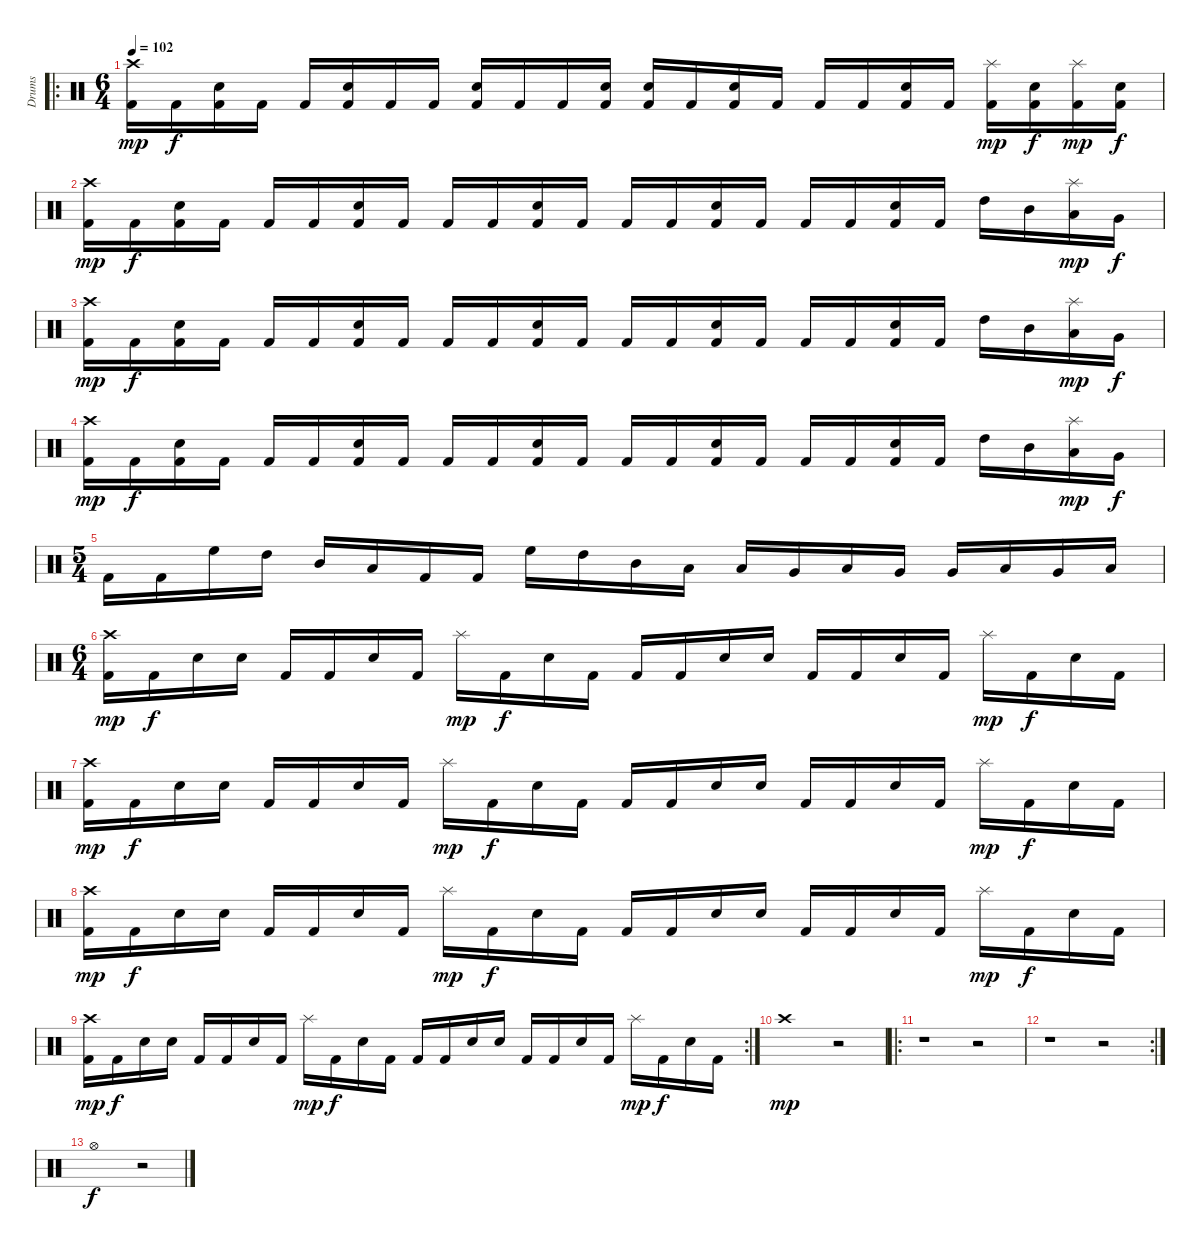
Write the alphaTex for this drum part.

\track ("Drums" "Drums") {instrument percussion}
\staff {score}
\articulation defaults
\ro
\ts (6 4)
\tempo 102
\clef neutral
\ks c
("Kick (hit) 2" "Crash high (hit)").16{dy mp} "Kick (hit) 2".16{dy f} ("Kick (hit) 2" "Electric Snare (hit)").16 "Kick (hit) 2".16 "Kick (hit) 2".16 ("Kick (hit) 2" "Electric Snare (hit)").16 "Kick (hit) 2".16 "Kick (hit) 2".16 ("Kick (hit) 2" "Electric Snare (hit)").16 "Kick (hit) 2".16 "Kick (hit) 2".16 ("Kick (hit) 2" "Electric Snare (hit)").16 ("Kick (hit) 2" "Electric Snare (hit)").16 "Kick (hit) 2".16 ("Kick (hit) 2" "Electric Snare (hit)").16 "Kick (hit) 2".16 "Kick (hit) 2".16 "Kick (hit) 2".16 ("Kick (hit) 2" "Electric Snare (hit)").16 "Kick (hit) 2".16 ("Kick (hit) 2" "Splash (hit)").16{dy mp} ("Kick (hit) 2" "Electric Snare (hit)").16{dy f} ("Kick (hit) 2" "Splash (hit)").16{dy mp} ("Kick (hit) 2" "Electric Snare (hit)").16{dy f} |
("Kick (hit) 2" "Crash high (hit)").16{dy mp} "Kick (hit) 2".16{dy f} ("Kick (hit) 2" "Electric Snare (hit)").16 "Kick (hit) 2".16 "Kick (hit) 2".16 "Kick (hit) 2".16 ("Kick (hit) 2" "Electric Snare (hit)").16 "Kick (hit) 2".16 "Kick (hit) 2".16 "Kick (hit) 2".16 ("Kick (hit) 2" "Electric Snare (hit)").16 "Kick (hit) 2".16 "Kick (hit) 2".16 "Kick (hit) 2".16 ("Kick (hit) 2" "Electric Snare (hit)").16 "Kick (hit) 2".16 "Kick (hit) 2".16 "Kick (hit) 2".16 ("Kick (hit) 2" "Electric Snare (hit)").16 "Kick (hit) 2".16 "High Tom (hit)".16 "Mid Tom (hit)".16 ("Low Tom (hit)" "Splash (hit)").16{dy mp} "Very Low Tom (hit)".16{dy f} |
("Kick (hit) 2" "Crash high (hit)").16{dy mp} "Kick (hit) 2".16{dy f} ("Kick (hit) 2" "Electric Snare (hit)").16 "Kick (hit) 2".16 "Kick (hit) 2".16 "Kick (hit) 2".16 ("Kick (hit) 2" "Electric Snare (hit)").16 "Kick (hit) 2".16 "Kick (hit) 2".16 "Kick (hit) 2".16 ("Kick (hit) 2" "Electric Snare (hit)").16 "Kick (hit) 2".16 "Kick (hit) 2".16 "Kick (hit) 2".16 ("Kick (hit) 2" "Electric Snare (hit)").16 "Kick (hit) 2".16 "Kick (hit) 2".16 "Kick (hit) 2".16 ("Kick (hit) 2" "Electric Snare (hit)").16 "Kick (hit) 2".16 "High Tom (hit)".16 "Mid Tom (hit)".16 ("Low Tom (hit)" "Splash (hit)").16{dy mp} "Very Low Tom (hit)".16{dy f} |
("Kick (hit) 2" "Crash high (hit)").16{dy mp} "Kick (hit) 2".16{dy f} ("Kick (hit) 2" "Electric Snare (hit)").16 "Kick (hit) 2".16 "Kick (hit) 2".16 "Kick (hit) 2".16 ("Kick (hit) 2" "Electric Snare (hit)").16 "Kick (hit) 2".16 "Kick (hit) 2".16 "Kick (hit) 2".16 ("Kick (hit) 2" "Electric Snare (hit)").16 "Kick (hit) 2".16 "Kick (hit) 2".16 "Kick (hit) 2".16 ("Kick (hit) 2" "Electric Snare (hit)").16 "Kick (hit) 2".16 "Kick (hit) 2".16 "Kick (hit) 2".16 ("Kick (hit) 2" "Electric Snare (hit)").16 "Kick (hit) 2".16 "High Tom (hit)".16 "Mid Tom (hit)".16 ("Low Tom (hit)" "Splash (hit)").16{dy mp} "Very Low Tom (hit)".16{dy f} |
\ts (5 4)
"Kick (hit) 2".16 "Kick (hit) 2".16 "High Floor Tom (hit)".16 "High Tom (hit)".16 "Mid Tom (hit)".16 "Low Tom (hit)".16 "Kick (hit) 2".16 "Kick (hit) 2".16 "High Floor Tom (hit)".16 "High Tom (hit)".16 "Mid Tom (hit)".16 "Low Tom (hit)".16 "Low Tom (hit)".16 "Very Low Tom (hit)".16 "Low Tom (hit)".16 "Very Low Tom (hit)".16 "Very Low Tom (hit)".16 "Low Floor Tom (hit)".16 "Very Low Tom (hit)".16 "Low Floor Tom (hit)".16 |
\ts (6 4)
("Kick (hit) 2" "Crash high (hit)").16{dy mp} "Kick (hit) 2".16{dy f} "Electric Snare (hit)".16 "Electric Snare (hit)".16 "Kick (hit) 2".16 "Kick (hit) 2".16 "Electric Snare (hit)".16 "Kick (hit) 2".16 "Splash (hit)".16{dy mp} "Kick (hit) 2".16{dy f} "Electric Snare (hit)".16 "Kick (hit) 2".16 "Kick (hit) 2".16 "Kick (hit) 2".16 "Electric Snare (hit)".16 "Electric Snare (hit)".16 "Kick (hit) 2".16 "Kick (hit) 2".16 "Electric Snare (hit)".16 "Kick (hit) 2".16 "Splash (hit)".16{dy mp} "Kick (hit) 2".16{dy f} "Electric Snare (hit)".16 "Kick (hit) 2".16 |
("Kick (hit) 2" "Crash high (hit)").16{dy mp} "Kick (hit) 2".16{dy f} "Electric Snare (hit)".16 "Electric Snare (hit)".16 "Kick (hit) 2".16 "Kick (hit) 2".16 "Electric Snare (hit)".16 "Kick (hit) 2".16 "Splash (hit)".16{dy mp} "Kick (hit) 2".16{dy f} "Electric Snare (hit)".16 "Kick (hit) 2".16 "Kick (hit) 2".16 "Kick (hit) 2".16 "Electric Snare (hit)".16 "Electric Snare (hit)".16 "Kick (hit) 2".16 "Kick (hit) 2".16 "Electric Snare (hit)".16 "Kick (hit) 2".16 "Splash (hit)".16{dy mp} "Kick (hit) 2".16{dy f} "Electric Snare (hit)".16 "Kick (hit) 2".16 |
("Kick (hit) 2" "Crash high (hit)").16{dy mp} "Kick (hit) 2".16{dy f} "Electric Snare (hit)".16 "Electric Snare (hit)".16 "Kick (hit) 2".16 "Kick (hit) 2".16 "Electric Snare (hit)".16 "Kick (hit) 2".16 "Splash (hit)".16{dy mp} "Kick (hit) 2".16{dy f} "Electric Snare (hit)".16 "Kick (hit) 2".16 "Kick (hit) 2".16 "Kick (hit) 2".16 "Electric Snare (hit)".16 "Electric Snare (hit)".16 "Kick (hit) 2".16 "Kick (hit) 2".16 "Electric Snare (hit)".16 "Kick (hit) 2".16 "Splash (hit)".16{dy mp} "Kick (hit) 2".16{dy f} "Electric Snare (hit)".16 "Kick (hit) 2".16 |
\rc 2
("Kick (hit) 2" "Crash high (hit)").16{dy mp} "Kick (hit) 2".16{dy f} "Electric Snare (hit)".16 "Electric Snare (hit)".16 "Kick (hit) 2".16 "Kick (hit) 2".16 "Electric Snare (hit)".16 "Kick (hit) 2".16 "Splash (hit)".16{dy mp} "Kick (hit) 2".16{dy f} "Electric Snare (hit)".16 "Kick (hit) 2".16 "Kick (hit) 2".16 "Kick (hit) 2".16 "Electric Snare (hit)".16 "Electric Snare (hit)".16 "Kick (hit) 2".16 "Kick (hit) 2".16 "Electric Snare (hit)".16 "Kick (hit) 2".16 "Splash (hit)".16{dy mp} "Kick (hit) 2".16{dy f} "Electric Snare (hit)".16 "Kick (hit) 2".16 |
"Crash high (hit)".1{dy mp} r.2 |
\ro
r.1 r.2 |
\rc 2
r.1 r.2 |
"Hi-Hat (open)".1{dy f} r.2
